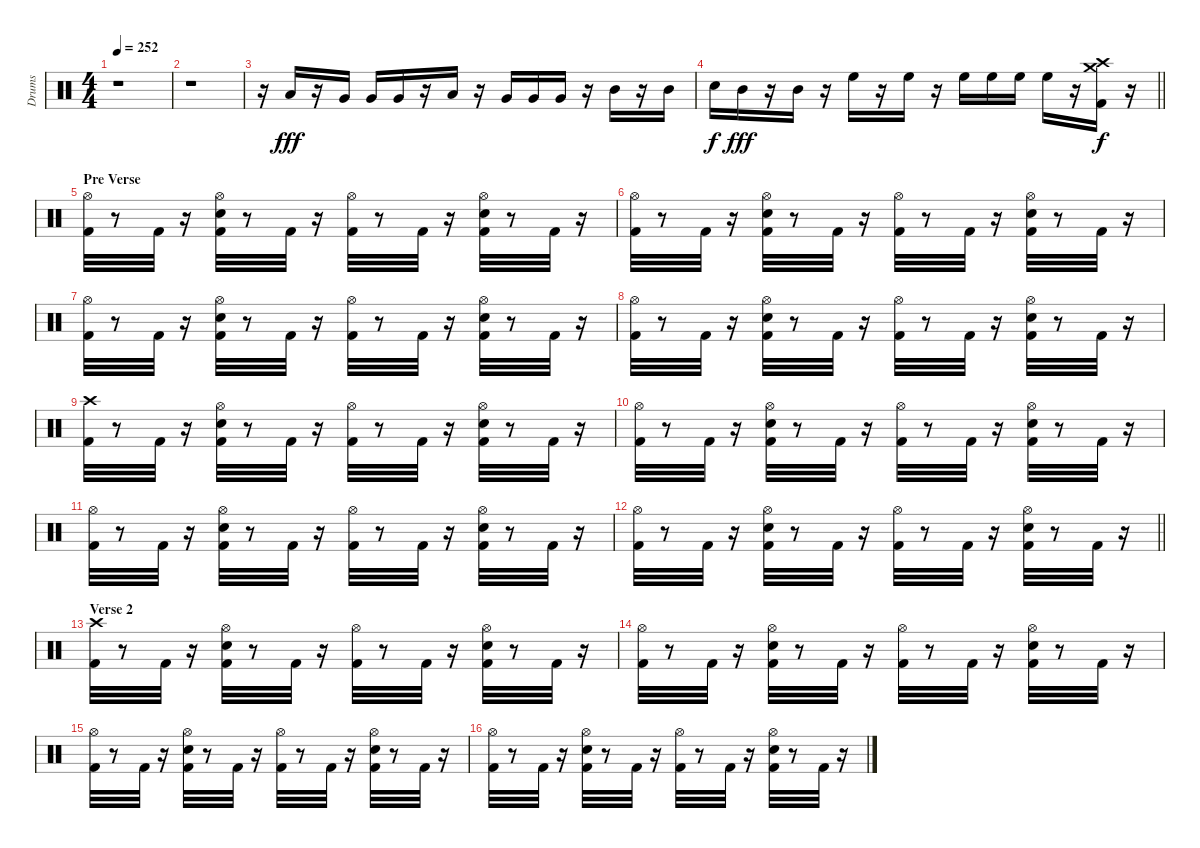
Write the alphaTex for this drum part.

\track ("Drums" "Drums") {instrument percussion}
\staff {score}
\articulation defaults
\ts (4 4)
\tempo 252
\clef neutral
\ks c
r.1{dy f} |
r.1 |
r.16 "Low Floor Tom (hit)".16{dy fff} r.16 "Very Low Tom (hit)".16 "Very Low Tom (hit)".16 "Very Low Tom (hit)".16 r.16 "Low Floor Tom (hit)".16 r.16 "Very Low Tom (hit)".16 "Very Low Tom (hit)".16 "Very Low Tom (hit)".16 r.16 "Mid Tom (hit)".16 r.16 "Mid Tom (hit)".16 |
\barLineRight lightlight "Snare (hit)".16{dy f} "Mid Tom (hit)".16{dy fff}
r.16 "Mid Tom (hit)".16 r.16 "High Floor Tom (hit)".16 r.16 "High Floor Tom (hit)".16 r.16 "High Floor Tom (hit)".16 "High Floor Tom (hit)".16 "High Floor Tom (hit)".16 "High Floor Tom (hit)".16 r.16 ("Crash medium (hit)" "Kick (hit) 2" "Crash high (hit)").16{dy f} r.16 |
\section ("" "Pre Verse")
("Hi-Hat (open)" "Kick (hit) 2").32 r.8 "Kick (hit) 2".32 r.16 ("Kick (hit) 2" "Snare (hit) 2" "Hi-Hat (open)").32 r.8 "Kick (hit) 2".32 r.16 ("Kick (hit) 2" "Hi-Hat (open)").32 r.8 "Kick (hit) 2".32 r.16 ("Snare (hit) 2" "Hi-Hat (open)" "Kick (hit) 2").32 r.8 "Kick (hit) 2".32 r.16 |
("Hi-Hat (open)" "Kick (hit) 2").32 r.8 "Kick (hit) 2".32 r.16 ("Snare (hit) 2" "Hi-Hat (open)" "Kick (hit) 2").32 r.8 "Kick (hit) 2".32 r.16 ("Hi-Hat (open)" "Kick (hit) 2").32 r.8 "Kick (hit) 2".32 r.16 ("Snare (hit) 2" "Kick (hit) 2" "Hi-Hat (open)").32 r.8 "Kick (hit) 2".32 r.16 |
("Kick (hit) 2" "Hi-Hat (open)").32 r.8 "Kick (hit) 2".32 r.16 ("Hi-Hat (open)" "Snare (hit) 2" "Kick (hit) 2").32 r.8 "Kick (hit) 2".32 r.16 ("Kick (hit) 2" "Hi-Hat (open)").32 r.8 "Kick (hit) 2".32 r.16 ("Hi-Hat (open)" "Kick (hit) 2" "Snare (hit) 2").32 r.8 "Kick (hit) 2".32 r.16 |
("Kick (hit) 2" "Hi-Hat (open)").32 r.8 "Kick (hit) 2".32 r.16 ("Kick (hit) 2" "Hi-Hat (open)" "Snare (hit) 2").32 r.8 "Kick (hit) 2".32 r.16 ("Kick (hit) 2" "Hi-Hat (open)").32 r.8 "Kick (hit) 2".32 r.16 ("Snare (hit) 2" "Kick (hit) 2" "Hi-Hat (open)").32 r.8 "Kick (hit) 2".32 r.16 |
("Crash high (hit)" "Kick (hit) 2").32 r.8 "Kick (hit) 2".32 r.16 ("Snare (hit) 2" "Hi-Hat (open)" "Kick (hit) 2").32 r.8 "Kick (hit) 2".32 r.16 ("Kick (hit) 2" "Hi-Hat (open)").32 r.8 "Kick (hit) 2".32 r.16 ("Hi-Hat (open)" "Snare (hit) 2" "Kick (hit) 2").32 r.8 "Kick (hit) 2".32 r.16 |
("Hi-Hat (open)" "Kick (hit) 2").32 r.8 "Kick (hit) 2".32 r.16 ("Hi-Hat (open)" "Snare (hit) 2" "Kick (hit) 2").32 r.8 "Kick (hit) 2".32 r.16 ("Hi-Hat (open)" "Kick (hit) 2").32 r.8 "Kick (hit) 2".32 r.16 ("Kick (hit) 2" "Hi-Hat (open)" "Snare (hit) 2").32 r.8 "Kick (hit) 2".32 r.16 |
("Kick (hit) 2" "Hi-Hat (open)").32 r.8 "Kick (hit) 2".32 r.16 ("Hi-Hat (open)" "Snare (hit) 2" "Kick (hit) 2").32 r.8 "Kick (hit) 2".32 r.16 ("Hi-Hat (open)" "Kick (hit) 2").32 r.8 "Kick (hit) 2".32 r.16 ("Hi-Hat (open)" "Snare (hit) 2" "Kick (hit) 2").32 r.8 "Kick (hit) 2".32 r.16 |
\barLineRight lightlight
("Hi-Hat (open)" "Kick (hit) 2").32 r.8 "Kick (hit) 2".32 r.16 ("Hi-Hat (open)" "Kick (hit) 2" "Snare (hit) 2").32 r.8 "Kick (hit) 2".32 r.16 ("Hi-Hat (open)" "Kick (hit) 2").32 r.8 "Kick (hit) 2".32 r.16 ("Hi-Hat (open)" "Kick (hit) 2" "Snare (hit) 2").32 r.8 "Kick (hit) 2".32 r.16 |
\section ("" "Verse 2")
("Kick (hit) 2" "Crash high (hit)").32 r.8 "Kick (hit) 2".32 r.16 ("Kick (hit) 2" "Hi-Hat (open)" "Snare (hit) 2").32 r.8 "Kick (hit) 2".32 r.16 ("Kick (hit) 2" "Hi-Hat (open)").32 r.8 "Kick (hit) 2".32 r.16 ("Snare (hit) 2" "Hi-Hat (open)" "Kick (hit) 2").32 r.8 "Kick (hit) 2".32 r.16 |
("Kick (hit) 2" "Hi-Hat (open)").32 r.8 "Kick (hit) 2".32 r.16 ("Hi-Hat (open)" "Kick (hit) 2" "Snare (hit) 2").32 r.8 "Kick (hit) 2".32 r.16 ("Kick (hit) 2" "Hi-Hat (open)").32 r.8 "Kick (hit) 2".32 r.16 ("Kick (hit) 2" "Hi-Hat (open)" "Snare (hit) 2").32 r.8 "Kick (hit) 2".32 r.16 |
("Hi-Hat (open)" "Kick (hit) 2").32 r.8 "Kick (hit) 2".32 r.16 ("Kick (hit) 2" "Hi-Hat (open)" "Snare (hit) 2").32 r.8 "Kick (hit) 2".32 r.16 ("Hi-Hat (open)" "Kick (hit) 2").32 r.8 "Kick (hit) 2".32 r.16 ("Snare (hit) 2" "Hi-Hat (open)" "Kick (hit) 2").32 r.8 "Kick (hit) 2".32 r.16 |
("Hi-Hat (open)" "Kick (hit) 2").32 r.8 "Kick (hit) 2".32 r.16 ("Kick (hit) 2" "Snare (hit) 2" "Hi-Hat (open)").32 r.8 "Kick (hit) 2".32 r.16 ("Hi-Hat (open)" "Kick (hit) 2").32 r.8 "Kick (hit) 2".32 r.16 ("Hi-Hat (open)" "Snare (hit) 2" "Kick (hit) 2").32 r.8 "Kick (hit) 2".32 r.16
